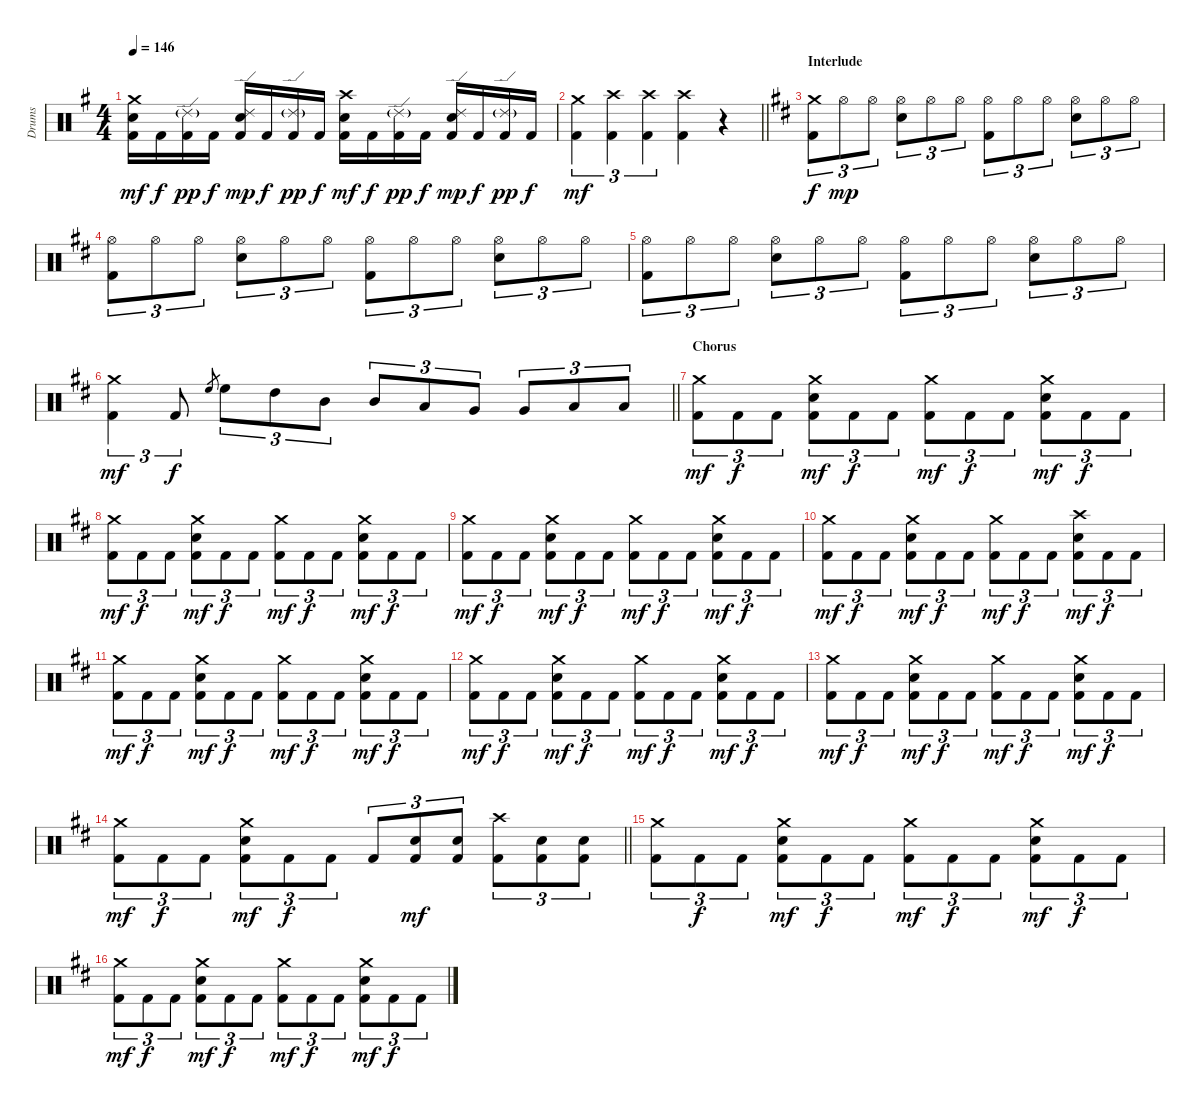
\track ("Drums" "Drums") {instrument percussion}
\staff {score}
\articulation defaults
\ts (4 4)
\tempo 146
\clef neutral
\ks eminor
("Crash medium (hit)" "Electric Snare (hit)" "Kick (hit) 2").16{dy mf} "Kick (hit) 2".16{dy f} ("Ride (edge) 2"{g} "Kick (hit) 2").16{dy pp} "Kick (hit) 2".16{dy f} ("Ride (edge) 2" "Electric Snare (hit)" "Kick (hit) 2").16{dy mp} "Kick (hit) 2".16{dy f} ("Ride (edge) 2"{g} "Kick (hit) 2").16{dy pp} "Kick (hit) 2".16{dy f} ("Crash high (hit)" "Electric Snare (hit)" "Kick (hit) 2").16{dy mf} "Kick (hit) 2".16{dy f} ("Ride (edge) 2"{g} "Kick (hit) 2").16{dy pp} "Kick (hit) 2".16{dy f} ("Ride (edge) 2" "Electric Snare (hit)" "Kick (hit) 2").16{dy mp} "Kick (hit) 2".16{dy f} ("Ride (edge) 2"{g} "Kick (hit) 2").16{dy pp} "Kick (hit) 2".16{dy f} |
\barLineRight lightlight
("Crash medium (hit)" "Kick (hit) 2").4{tu (3 2) dy mf} ("Crash high (hit)" "Kick (hit) 2").4{tu (3 2)} ("Crash high (hit)" "Kick (hit) 2").4{tu (3 2)} ("Crash high (hit)" "Kick (hit) 2").4 r.4 |
\section ("" "Interlude")
\ks bminor
("Crash medium (hit)" "Kick (hit) 2").8{tu (3 2) dy f} "Hi-Hat (open)".8{tu (3 2) dy mp} "Hi-Hat (open)".8{tu (3 2)} ("Hi-Hat (open)" "Electric Snare (hit)").8{tu (3 2)} "Hi-Hat (open)".8{tu (3 2)} "Hi-Hat (open)".8{tu (3 2)} ("Hi-Hat (open)" "Kick (hit) 2").8{tu (3 2)} "Hi-Hat (open)".8{tu (3 2)} "Hi-Hat (open)".8{tu (3 2)} ("Hi-Hat (open)" "Electric Snare (hit)").8{tu (3 2)} "Hi-Hat (open)".8{tu (3 2)} "Hi-Hat (open)".8{tu (3 2)} |
("Hi-Hat (open)" "Kick (hit) 2").8{tu (3 2)} "Hi-Hat (open)".8{tu (3 2)} "Hi-Hat (open)".8{tu (3 2)} ("Hi-Hat (open)" "Electric Snare (hit)").8{tu (3 2)} "Hi-Hat (open)".8{tu (3 2)} "Hi-Hat (open)".8{tu (3 2)} ("Hi-Hat (open)" "Kick (hit) 2").8{tu (3 2)} "Hi-Hat (open)".8{tu (3 2)} "Hi-Hat (open)".8{tu (3 2)} ("Hi-Hat (open)" "Electric Snare (hit)").8{tu (3 2)} "Hi-Hat (open)".8{tu (3 2)} "Hi-Hat (open)".8{tu (3 2)} |
("Hi-Hat (open)" "Kick (hit) 2").8{tu (3 2)} "Hi-Hat (open)".8{tu (3 2)} "Hi-Hat (open)".8{tu (3 2)} ("Hi-Hat (open)" "Electric Snare (hit)").8{tu (3 2)} "Hi-Hat (open)".8{tu (3 2)} "Hi-Hat (open)".8{tu (3 2)} ("Hi-Hat (open)" "Kick (hit) 2").8{tu (3 2)} "Hi-Hat (open)".8{tu (3 2)} "Hi-Hat (open)".8{tu (3 2)} ("Hi-Hat (open)" "Electric Snare (hit)").8{tu (3 2)} "Hi-Hat (open)".8{tu (3 2)} "Hi-Hat (open)".8{tu (3 2)} |
\barLineRight lightlight
("Crash medium (hit)" "Kick (hit) 2").4{tu (3 2) dy mf} "Kick (hit) 2".8{tu (3 2) dy f} "High Floor Tom (hit)".8{gr} "High Floor Tom (hit)".8{tu (3 2)} "High Tom (hit)".8{tu (3 2)} "Mid Tom (hit)".8{tu (3 2)} "Mid Tom (hit)".8{tu (3 2)} "Low Tom (hit)".8{tu (3 2)} "Very Low Tom (hit)".8{tu (3 2)} "Very Low Tom (hit)".8{tu (3 2)} "Low Floor Tom (hit)".8{tu (3 2)} "Low Floor Tom (hit)".8{tu (3 2)} |
\section ("" "Chorus")
("Crash medium (hit)" "Kick (hit) 2").8{tu (3 2) dy mf} "Kick (hit) 2".8{tu (3 2) dy f} "Kick (hit) 2".8{tu (3 2)} ("Crash medium (hit)" "Electric Snare (hit)" "Kick (hit) 2").8{tu (3 2) dy mf} "Kick (hit) 2".8{tu (3 2) dy f} "Kick (hit) 2".8{tu (3 2)} ("Crash medium (hit)" "Kick (hit) 2").8{tu (3 2) dy mf} "Kick (hit) 2".8{tu (3 2) dy f} "Kick (hit) 2".8{tu (3 2)} ("Crash medium (hit)" "Electric Snare (hit)" "Kick (hit) 2").8{tu (3 2) dy mf} "Kick (hit) 2".8{tu (3 2) dy f} "Kick (hit) 2".8{tu (3 2)} |
("Crash medium (hit)" "Kick (hit) 2").8{tu (3 2) dy mf} "Kick (hit) 2".8{tu (3 2) dy f} "Kick (hit) 2".8{tu (3 2)} ("Crash medium (hit)" "Electric Snare (hit)" "Kick (hit) 2").8{tu (3 2) dy mf} "Kick (hit) 2".8{tu (3 2) dy f} "Kick (hit) 2".8{tu (3 2)} ("Crash medium (hit)" "Kick (hit) 2").8{tu (3 2) dy mf} "Kick (hit) 2".8{tu (3 2) dy f} "Kick (hit) 2".8{tu (3 2)} ("Crash medium (hit)" "Electric Snare (hit)" "Kick (hit) 2").8{tu (3 2) dy mf} "Kick (hit) 2".8{tu (3 2) dy f} "Kick (hit) 2".8{tu (3 2)} |
("Crash medium (hit)" "Kick (hit) 2").8{tu (3 2) dy mf} "Kick (hit) 2".8{tu (3 2) dy f} "Kick (hit) 2".8{tu (3 2)} ("Crash medium (hit)" "Electric Snare (hit)" "Kick (hit) 2").8{tu (3 2) dy mf} "Kick (hit) 2".8{tu (3 2) dy f} "Kick (hit) 2".8{tu (3 2)} ("Crash medium (hit)" "Kick (hit) 2").8{tu (3 2) dy mf} "Kick (hit) 2".8{tu (3 2) dy f} "Kick (hit) 2".8{tu (3 2)} ("Crash medium (hit)" "Electric Snare (hit)" "Kick (hit) 2").8{tu (3 2) dy mf} "Kick (hit) 2".8{tu (3 2) dy f} "Kick (hit) 2".8{tu (3 2)} |
("Crash medium (hit)" "Kick (hit) 2").8{tu (3 2) dy mf} "Kick (hit) 2".8{tu (3 2) dy f} "Kick (hit) 2".8{tu (3 2)} ("Crash medium (hit)" "Electric Snare (hit)" "Kick (hit) 2").8{tu (3 2) dy mf} "Kick (hit) 2".8{tu (3 2) dy f} "Kick (hit) 2".8{tu (3 2)} ("Crash medium (hit)" "Kick (hit) 2").8{tu (3 2) dy mf} "Kick (hit) 2".8{tu (3 2) dy f} "Kick (hit) 2".8{tu (3 2)} ("Crash high (hit)" "Electric Snare (hit)" "Kick (hit) 2").8{tu (3 2) dy mf} "Kick (hit) 2".8{tu (3 2) dy f} "Kick (hit) 2".8{tu (3 2)} |
("Crash medium (hit)" "Kick (hit) 2").8{tu (3 2) dy mf} "Kick (hit) 2".8{tu (3 2) dy f} "Kick (hit) 2".8{tu (3 2)} ("Crash medium (hit)" "Electric Snare (hit)" "Kick (hit) 2").8{tu (3 2) dy mf} "Kick (hit) 2".8{tu (3 2) dy f} "Kick (hit) 2".8{tu (3 2)} ("Crash medium (hit)" "Kick (hit) 2").8{tu (3 2) dy mf} "Kick (hit) 2".8{tu (3 2) dy f} "Kick (hit) 2".8{tu (3 2)} ("Crash medium (hit)" "Electric Snare (hit)" "Kick (hit) 2").8{tu (3 2) dy mf} "Kick (hit) 2".8{tu (3 2) dy f} "Kick (hit) 2".8{tu (3 2)} |
("Crash medium (hit)" "Kick (hit) 2").8{tu (3 2) dy mf} "Kick (hit) 2".8{tu (3 2) dy f} "Kick (hit) 2".8{tu (3 2)} ("Crash medium (hit)" "Electric Snare (hit)" "Kick (hit) 2").8{tu (3 2) dy mf} "Kick (hit) 2".8{tu (3 2) dy f} "Kick (hit) 2".8{tu (3 2)} ("Crash medium (hit)" "Kick (hit) 2").8{tu (3 2) dy mf} "Kick (hit) 2".8{tu (3 2) dy f} "Kick (hit) 2".8{tu (3 2)} ("Crash medium (hit)" "Electric Snare (hit)" "Kick (hit) 2").8{tu (3 2) dy mf} "Kick (hit) 2".8{tu (3 2) dy f} "Kick (hit) 2".8{tu (3 2)} |
("Crash medium (hit)" "Kick (hit) 2").8{tu (3 2) dy mf} "Kick (hit) 2".8{tu (3 2) dy f} "Kick (hit) 2".8{tu (3 2)} ("Crash medium (hit)" "Electric Snare (hit)" "Kick (hit) 2").8{tu (3 2) dy mf} "Kick (hit) 2".8{tu (3 2) dy f} "Kick (hit) 2".8{tu (3 2)} ("Crash medium (hit)" "Kick (hit) 2").8{tu (3 2) dy mf} "Kick (hit) 2".8{tu (3 2) dy f} "Kick (hit) 2".8{tu (3 2)} ("Crash medium (hit)" "Electric Snare (hit)" "Kick (hit) 2").8{tu (3 2) dy mf} "Kick (hit) 2".8{tu (3 2) dy f} "Kick (hit) 2".8{tu (3 2)} |
\barLineRight lightlight
("Crash medium (hit)" "Kick (hit) 2").8{tu (3 2) dy mf} "Kick (hit) 2".8{tu (3 2) dy f} "Kick (hit) 2".8{tu (3 2)} ("Crash medium (hit)" "Electric Snare (hit)" "Kick (hit) 2").8{tu (3 2) dy mf} "Kick (hit) 2".8{tu (3 2) dy f} "Kick (hit) 2".8{tu (3 2)} "Kick (hit) 2".8{tu (3 2)} ("Electric Snare (hit)" "Kick (hit) 2").8{tu (3 2) dy mf} ("Electric Snare (hit)" "Kick (hit) 2").8{tu (3 2)} ("Crash high (hit)" "Kick (hit) 2").8{tu (3 2)} ("Electric Snare (hit)" "Kick (hit) 2").8{tu (3 2)} ("Electric Snare (hit)" "Kick (hit) 2").8{tu (3 2)} |
\section ("" "")
("Crash medium (hit)" "Kick (hit) 2").8{tu (3 2)} "Kick (hit) 2".8{tu (3 2) dy f} "Kick (hit) 2".8{tu (3 2)} ("Crash medium (hit)" "Electric Snare (hit)" "Kick (hit) 2").8{tu (3 2) dy mf} "Kick (hit) 2".8{tu (3 2) dy f} "Kick (hit) 2".8{tu (3 2)} ("Crash medium (hit)" "Kick (hit) 2").8{tu (3 2) dy mf} "Kick (hit) 2".8{tu (3 2) dy f} "Kick (hit) 2".8{tu (3 2)} ("Crash medium (hit)" "Electric Snare (hit)" "Kick (hit) 2").8{tu (3 2) dy mf} "Kick (hit) 2".8{tu (3 2) dy f} "Kick (hit) 2".8{tu (3 2)} |
("Crash medium (hit)" "Kick (hit) 2").8{tu (3 2) dy mf} "Kick (hit) 2".8{tu (3 2) dy f} "Kick (hit) 2".8{tu (3 2)} ("Crash medium (hit)" "Electric Snare (hit)" "Kick (hit) 2").8{tu (3 2) dy mf} "Kick (hit) 2".8{tu (3 2) dy f} "Kick (hit) 2".8{tu (3 2)} ("Crash medium (hit)" "Kick (hit) 2").8{tu (3 2) dy mf} "Kick (hit) 2".8{tu (3 2) dy f} "Kick (hit) 2".8{tu (3 2)} ("Crash medium (hit)" "Electric Snare (hit)" "Kick (hit) 2").8{tu (3 2) dy mf} "Kick (hit) 2".8{tu (3 2) dy f} "Kick (hit) 2".8{tu (3 2)}
